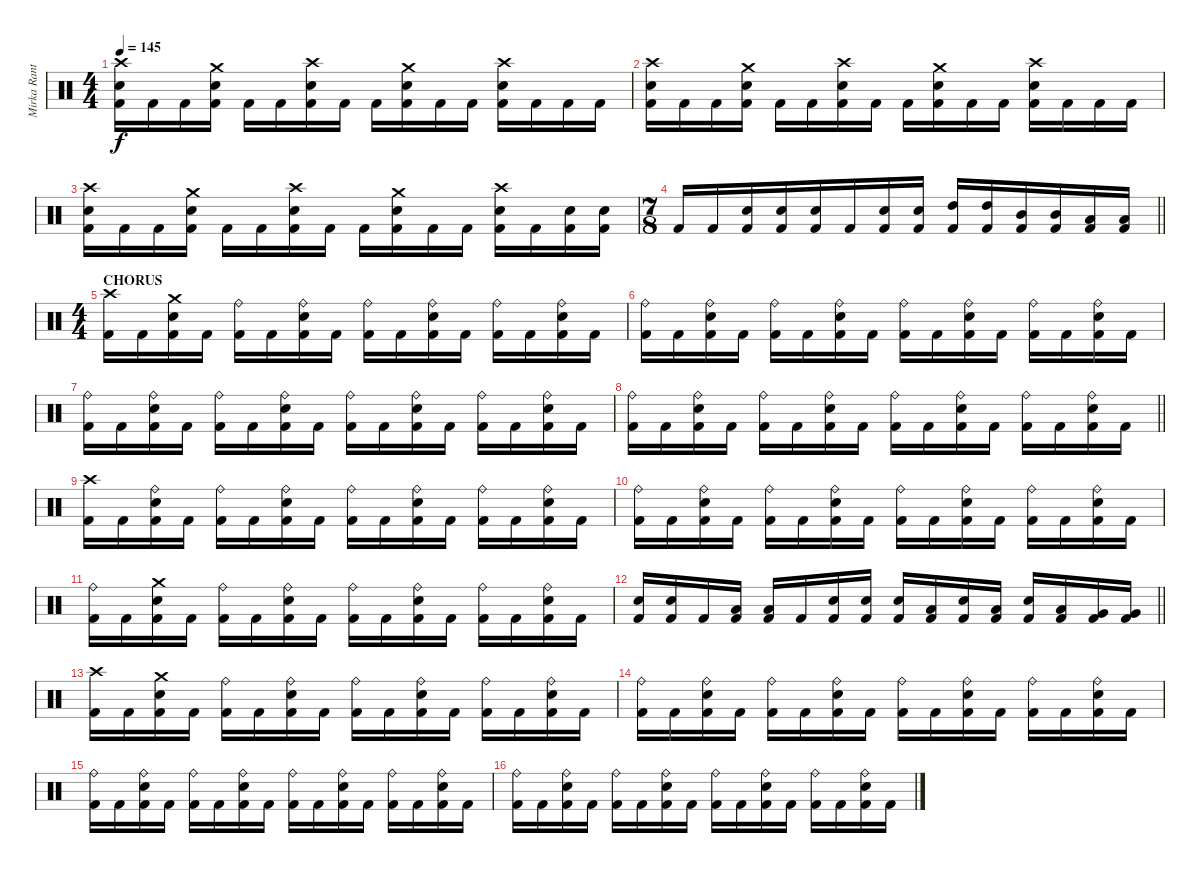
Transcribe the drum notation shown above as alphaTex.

\track ("Mirka Rantanen" "Mirka Rant") {instrument percussion}
\staff {score}
\articulation defaults
\ts (4 4)
\tempo 145
\clef neutral
\ks c
("Crash high (hit)" "Electric Snare (hit)" "Kick (hit) 2").16{dy f} "Kick (hit) 2".16 "Kick (hit) 2".16 ("Crash medium (hit)" "Electric Snare (hit)" "Kick (hit) 2").16 "Kick (hit) 2".16 "Kick (hit) 2".16 ("Crash high (hit)" "Electric Snare (hit)" "Kick (hit) 2").16 "Kick (hit) 2".16 "Kick (hit) 2".16 ("Crash medium (hit)" "Electric Snare (hit)" "Kick (hit) 2").16 "Kick (hit) 2".16 "Kick (hit) 2".16 ("Crash high (hit)" "Electric Snare (hit)" "Kick (hit) 2").16 "Kick (hit) 2".16 "Kick (hit) 2".16 "Kick (hit) 2".16 |
("Crash high (hit)" "Electric Snare (hit)" "Kick (hit) 2").16 "Kick (hit) 2".16 "Kick (hit) 2".16 ("Crash medium (hit)" "Electric Snare (hit)" "Kick (hit) 2").16 "Kick (hit) 2".16 "Kick (hit) 2".16 ("Crash high (hit)" "Electric Snare (hit)" "Kick (hit) 2").16 "Kick (hit) 2".16 "Kick (hit) 2".16 ("Crash medium (hit)" "Electric Snare (hit)" "Kick (hit) 2").16 "Kick (hit) 2".16 "Kick (hit) 2".16 ("Crash high (hit)" "Electric Snare (hit)" "Kick (hit) 2").16 "Kick (hit) 2".16 "Kick (hit) 2".16 "Kick (hit) 2".16 |
("Crash high (hit)" "Electric Snare (hit)" "Kick (hit) 2").16 "Kick (hit) 2".16 "Kick (hit) 2".16 ("Crash medium (hit)" "Electric Snare (hit)" "Kick (hit) 2").16 "Kick (hit) 2".16 "Kick (hit) 2".16 ("Crash high (hit)" "Electric Snare (hit)" "Kick (hit) 2").16 "Kick (hit) 2".16 "Kick (hit) 2".16 ("Crash medium (hit)" "Electric Snare (hit)" "Kick (hit) 2").16 "Kick (hit) 2".16 "Kick (hit) 2".16 ("Crash high (hit)" "Electric Snare (hit)" "Kick (hit) 2").16 "Kick (hit) 2".16 ("Electric Snare (hit)" "Kick (hit) 2").16 ("Electric Snare (hit)" "Kick (hit) 2").16 |
\ts (7 8)
\barLineRight lightlight "Kick (hit) 2".16 "Kick (hit) 2".16
("Electric Snare (hit)" "Kick (hit) 2").16 ("Electric Snare (hit)" "Kick (hit) 2").16 ("Electric Snare (hit)" "Kick (hit) 2").16 "Kick (hit) 2".16 ("Electric Snare (hit)" "Kick (hit) 2").16 ("Electric Snare (hit)" "Kick (hit) 2").16 ("High Tom (hit)" "Kick (hit) 2").16 ("High Tom (hit)" "Kick (hit) 2").16 ("Mid Tom (hit)" "Kick (hit) 2").16 ("Mid Tom (hit)" "Kick (hit) 2").16 ("Low Tom (hit)" "Kick (hit) 2").16 ("Low Tom (hit)" "Kick (hit) 2").16 |
\ts (4 4)
\section ("" "CHORUS")
("Crash high (hit)" "Kick (hit) 2").16 "Kick (hit) 2".16 ("Crash medium (hit)" "Electric Snare (hit)" "Kick (hit) 2").16 "Kick (hit) 2".16 ("Ride (bell)" "Kick (hit) 2").16 "Kick (hit) 2".16 ("Ride (bell)" "Electric Snare (hit)" "Kick (hit) 2").16 "Kick (hit) 2".16 ("Ride (bell)" "Kick (hit) 2").16 "Kick (hit) 2".16 ("Ride (bell)" "Electric Snare (hit)" "Kick (hit) 2").16 "Kick (hit) 2".16 ("Ride (bell)" "Kick (hit) 2").16 "Kick (hit) 2".16 ("Ride (bell)" "Electric Snare (hit)" "Kick (hit) 2").16 "Kick (hit) 2".16 |
("Ride (bell)" "Kick (hit) 2").16 "Kick (hit) 2".16 ("Ride (bell)" "Electric Snare (hit)" "Kick (hit) 2").16 "Kick (hit) 2".16 ("Ride (bell)" "Kick (hit) 2").16 "Kick (hit) 2".16 ("Ride (bell)" "Electric Snare (hit)" "Kick (hit) 2").16 "Kick (hit) 2".16 ("Ride (bell)" "Kick (hit) 2").16 "Kick (hit) 2".16 ("Ride (bell)" "Electric Snare (hit)" "Kick (hit) 2").16 "Kick (hit) 2".16 ("Ride (bell)" "Kick (hit) 2").16 "Kick (hit) 2".16 ("Ride (bell)" "Electric Snare (hit)" "Kick (hit) 2").16 "Kick (hit) 2".16 |
("Ride (bell)" "Kick (hit) 2").16 "Kick (hit) 2".16 ("Ride (bell)" "Electric Snare (hit)" "Kick (hit) 2").16 "Kick (hit) 2".16 ("Ride (bell)" "Kick (hit) 2").16 "Kick (hit) 2".16 ("Ride (bell)" "Electric Snare (hit)" "Kick (hit) 2").16 "Kick (hit) 2".16 ("Ride (bell)" "Kick (hit) 2").16 "Kick (hit) 2".16 ("Ride (bell)" "Electric Snare (hit)" "Kick (hit) 2").16 "Kick (hit) 2".16 ("Ride (bell)" "Kick (hit) 2").16 "Kick (hit) 2".16 ("Ride (bell)" "Electric Snare (hit)" "Kick (hit) 2").16 "Kick (hit) 2".16 |
\barLineRight lightlight
("Ride (bell)" "Kick (hit) 2").16 "Kick (hit) 2".16 ("Ride (bell)" "Electric Snare (hit)" "Kick (hit) 2").16 "Kick (hit) 2".16 ("Ride (bell)" "Kick (hit) 2").16 "Kick (hit) 2".16 ("Ride (bell)" "Electric Snare (hit)" "Kick (hit) 2").16 "Kick (hit) 2".16 ("Ride (bell)" "Kick (hit) 2").16 "Kick (hit) 2".16 ("Ride (bell)" "Electric Snare (hit)" "Kick (hit) 2").16 "Kick (hit) 2".16 ("Ride (bell)" "Kick (hit) 2").16 "Kick (hit) 2".16 ("Ride (bell)" "Electric Snare (hit)" "Kick (hit) 2").16 "Kick (hit) 2".16 |
("Crash high (hit)" "Kick (hit) 2").16 "Kick (hit) 2".16 ("Ride (bell)" "Electric Snare (hit)" "Kick (hit) 2").16 "Kick (hit) 2".16 ("Ride (bell)" "Kick (hit) 2").16 "Kick (hit) 2".16 ("Ride (bell)" "Electric Snare (hit)" "Kick (hit) 2").16 "Kick (hit) 2".16 ("Ride (bell)" "Kick (hit) 2").16 "Kick (hit) 2".16 ("Ride (bell)" "Electric Snare (hit)" "Kick (hit) 2").16 "Kick (hit) 2".16 ("Ride (bell)" "Kick (hit) 2").16 "Kick (hit) 2".16 ("Ride (bell)" "Electric Snare (hit)" "Kick (hit) 2").16 "Kick (hit) 2".16 |
("Ride (bell)" "Kick (hit) 2").16 "Kick (hit) 2".16 ("Ride (bell)" "Electric Snare (hit)" "Kick (hit) 2").16 "Kick (hit) 2".16 ("Ride (bell)" "Kick (hit) 2").16 "Kick (hit) 2".16 ("Ride (bell)" "Electric Snare (hit)" "Kick (hit) 2").16 "Kick (hit) 2".16 ("Ride (bell)" "Kick (hit) 2").16 "Kick (hit) 2".16 ("Ride (bell)" "Electric Snare (hit)" "Kick (hit) 2").16 "Kick (hit) 2".16 ("Ride (bell)" "Kick (hit) 2").16 "Kick (hit) 2".16 ("Ride (bell)" "Electric Snare (hit)" "Kick (hit) 2").16 "Kick (hit) 2".16 |
("Ride (bell)" "Kick (hit) 2").16 "Kick (hit) 2".16 ("Crash medium (hit)" "Electric Snare (hit)" "Kick (hit) 2").16 "Kick (hit) 2".16 ("Ride (bell)" "Kick (hit) 2").16 "Kick (hit) 2".16 ("Ride (bell)" "Electric Snare (hit)" "Kick (hit) 2").16 "Kick (hit) 2".16 ("Ride (bell)" "Kick (hit) 2").16 "Kick (hit) 2".16 ("Ride (bell)" "Electric Snare (hit)" "Kick (hit) 2").16 "Kick (hit) 2".16 ("Ride (bell)" "Kick (hit) 2").16 "Kick (hit) 2".16 ("Ride (bell)" "Electric Snare (hit)" "Kick (hit) 2").16 "Kick (hit) 2".16 |
\barLineRight lightlight
("Electric Snare (hit)" "Kick (hit) 2").16 ("Electric Snare (hit)" "Kick (hit) 2").16 "Kick (hit) 2".16 ("Low Tom (hit)" "Kick (hit) 2").16 ("Low Tom (hit)" "Kick (hit) 2").16 "Kick (hit) 2".16 ("Electric Snare (hit)" "Kick (hit) 2").16 ("Electric Snare (hit)" "Kick (hit) 2").16 ("Electric Snare (hit)" "Kick (hit) 2").16 ("Low Tom (hit)" "Kick (hit) 2").16 ("Electric Snare (hit)" "Kick (hit) 2").16 ("Low Tom (hit)" "Kick (hit) 2").16 ("Electric Snare (hit)" "Kick (hit) 2").16 ("Low Tom (hit)" "Kick (hit) 2").16 ("Very Low Tom (hit)" "Kick (hit) 2").16 ("Very Low Tom (hit)" "Kick (hit) 2").16 |
("Crash high (hit)" "Kick (hit) 2").16 "Kick (hit) 2".16 ("Crash medium (hit)" "Electric Snare (hit)" "Kick (hit) 2").16 "Kick (hit) 2".16 ("Ride (bell)" "Kick (hit) 2").16 "Kick (hit) 2".16 ("Ride (bell)" "Electric Snare (hit)" "Kick (hit) 2").16 "Kick (hit) 2".16 ("Ride (bell)" "Kick (hit) 2").16 "Kick (hit) 2".16 ("Ride (bell)" "Electric Snare (hit)" "Kick (hit) 2").16 "Kick (hit) 2".16 ("Ride (bell)" "Kick (hit) 2").16 "Kick (hit) 2".16 ("Ride (bell)" "Electric Snare (hit)" "Kick (hit) 2").16 "Kick (hit) 2".16 |
("Ride (bell)" "Kick (hit) 2").16 "Kick (hit) 2".16 ("Ride (bell)" "Electric Snare (hit)" "Kick (hit) 2").16 "Kick (hit) 2".16 ("Ride (bell)" "Kick (hit) 2").16 "Kick (hit) 2".16 ("Ride (bell)" "Electric Snare (hit)" "Kick (hit) 2").16 "Kick (hit) 2".16 ("Ride (bell)" "Kick (hit) 2").16 "Kick (hit) 2".16 ("Ride (bell)" "Electric Snare (hit)" "Kick (hit) 2").16 "Kick (hit) 2".16 ("Ride (bell)" "Kick (hit) 2").16 "Kick (hit) 2".16 ("Ride (bell)" "Electric Snare (hit)" "Kick (hit) 2").16 "Kick (hit) 2".16 |
("Ride (bell)" "Kick (hit) 2").16 "Kick (hit) 2".16 ("Ride (bell)" "Electric Snare (hit)" "Kick (hit) 2").16 "Kick (hit) 2".16 ("Ride (bell)" "Kick (hit) 2").16 "Kick (hit) 2".16 ("Ride (bell)" "Electric Snare (hit)" "Kick (hit) 2").16 "Kick (hit) 2".16 ("Ride (bell)" "Kick (hit) 2").16 "Kick (hit) 2".16 ("Ride (bell)" "Electric Snare (hit)" "Kick (hit) 2").16 "Kick (hit) 2".16 ("Ride (bell)" "Kick (hit) 2").16 "Kick (hit) 2".16 ("Ride (bell)" "Electric Snare (hit)" "Kick (hit) 2").16 "Kick (hit) 2".16 |
("Ride (bell)" "Kick (hit) 2").16 "Kick (hit) 2".16 ("Ride (bell)" "Electric Snare (hit)" "Kick (hit) 2").16 "Kick (hit) 2".16 ("Ride (bell)" "Kick (hit) 2").16 "Kick (hit) 2".16 ("Ride (bell)" "Electric Snare (hit)" "Kick (hit) 2").16 "Kick (hit) 2".16 ("Ride (bell)" "Kick (hit) 2").16 "Kick (hit) 2".16 ("Ride (bell)" "Electric Snare (hit)" "Kick (hit) 2").16 "Kick (hit) 2".16 ("Ride (bell)" "Kick (hit) 2").16 "Kick (hit) 2".16 ("Ride (bell)" "Electric Snare (hit)" "Kick (hit) 2").16 "Kick (hit) 2".16
